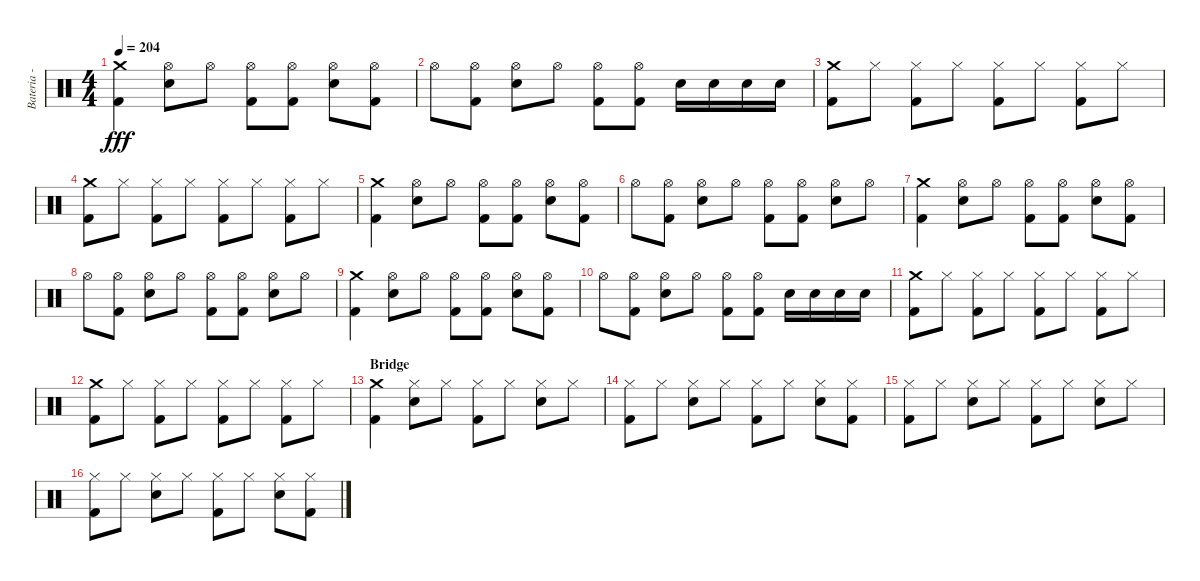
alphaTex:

\track ("Bateria - Larzon" "Bateria - ") {instrument percussion}
\staff {score}
\articulation defaults
\ts (4 4)
\tempo 204
\clef neutral
\ks c
("Crash medium (hit)" "Kick (hit) 2").4{dy fff} ("Hi-Hat (open)" "Electric Snare (hit)").8 "Hi-Hat (open)".8 ("Hi-Hat (open)" "Kick (hit) 2").8 ("Hi-Hat (open)" "Kick (hit) 2").8 ("Hi-Hat (open)" "Electric Snare (hit)").8 ("Hi-Hat (open)" "Kick (hit) 2").8 |
"Hi-Hat (open)".8 ("Hi-Hat (open)" "Kick (hit) 2").8 ("Hi-Hat (open)" "Electric Snare (hit)").8 "Hi-Hat (open)".8 ("Hi-Hat (open)" "Kick (hit) 2").8 ("Hi-Hat (open)" "Kick (hit) 2").8 "Electric Snare (hit)".16 "Electric Snare (hit)".16 "Electric Snare (hit)".16 "Electric Snare (hit)".16 |
("Kick (hit) 2" "Crash medium (hit)").8 "Hi-Hat (closed)".8 ("Kick (hit) 2" "Hi-Hat (closed)").8 "Hi-Hat (closed)".8 ("Kick (hit) 2" "Hi-Hat (closed)").8 "Hi-Hat (closed)".8 ("Kick (hit) 2" "Hi-Hat (closed)").8 "Hi-Hat (closed)".8 |
("Kick (hit) 2" "Crash medium (hit)").8 "Hi-Hat (closed)".8 ("Kick (hit) 2" "Hi-Hat (closed)").8 "Hi-Hat (closed)".8 ("Kick (hit) 2" "Hi-Hat (closed)").8 "Hi-Hat (closed)".8 ("Kick (hit) 2" "Hi-Hat (closed)").8 "Hi-Hat (closed)".8 |
("Kick (hit) 2" "Crash medium (hit)").4 ("Hi-Hat (open)" "Electric Snare (hit)").8 "Hi-Hat (open)".8 ("Hi-Hat (open)" "Kick (hit) 2").8 ("Hi-Hat (open)" "Kick (hit) 2").8 ("Hi-Hat (open)" "Electric Snare (hit)").8 ("Hi-Hat (open)" "Kick (hit) 2").8 |
"Hi-Hat (open)".8 ("Hi-Hat (open)" "Kick (hit) 2").8 ("Hi-Hat (open)" "Electric Snare (hit)").8 "Hi-Hat (open)".8 ("Hi-Hat (open)" "Kick (hit) 2").8 ("Hi-Hat (open)" "Kick (hit) 2").8 ("Hi-Hat (open)" "Electric Snare (hit)").8 "Hi-Hat (open)".8 |
("Crash medium (hit)" "Kick (hit) 2").4 ("Hi-Hat (open)" "Electric Snare (hit)").8 "Hi-Hat (open)".8 ("Hi-Hat (open)" "Kick (hit) 2").8 ("Hi-Hat (open)" "Kick (hit) 2").8 ("Hi-Hat (open)" "Electric Snare (hit)").8 ("Hi-Hat (open)" "Kick (hit) 2").8 |
"Hi-Hat (open)".8 ("Hi-Hat (open)" "Kick (hit) 2").8 ("Hi-Hat (open)" "Electric Snare (hit)").8 "Hi-Hat (open)".8 ("Hi-Hat (open)" "Kick (hit) 2").8 ("Hi-Hat (open)" "Kick (hit) 2").8 ("Electric Snare (hit)" "Hi-Hat (open)").8 "Hi-Hat (open)".8 |
("Crash medium (hit)" "Kick (hit) 2").4 ("Hi-Hat (open)" "Electric Snare (hit)").8 "Hi-Hat (open)".8 ("Hi-Hat (open)" "Kick (hit) 2").8 ("Hi-Hat (open)" "Kick (hit) 2").8 ("Hi-Hat (open)" "Electric Snare (hit)").8 ("Hi-Hat (open)" "Kick (hit) 2").8 |
"Hi-Hat (open)".8 ("Hi-Hat (open)" "Kick (hit) 2").8 ("Hi-Hat (open)" "Electric Snare (hit)").8 "Hi-Hat (open)".8 ("Hi-Hat (open)" "Kick (hit) 2").8 ("Hi-Hat (open)" "Kick (hit) 2").8 "Electric Snare (hit)".16 "Electric Snare (hit)".16 "Electric Snare (hit)".16 "Electric Snare (hit)".16 |
("Kick (hit) 2" "Crash medium (hit)").8 "Hi-Hat (closed)".8 ("Kick (hit) 2" "Hi-Hat (closed)").8 "Hi-Hat (closed)".8 ("Kick (hit) 2" "Hi-Hat (closed)").8 "Hi-Hat (closed)".8 ("Kick (hit) 2" "Hi-Hat (closed)").8 "Hi-Hat (closed)".8 |
("Kick (hit) 2" "Crash medium (hit)").8 "Hi-Hat (closed)".8 ("Kick (hit) 2" "Hi-Hat (closed)").8 "Hi-Hat (closed)".8 ("Kick (hit) 2" "Hi-Hat (closed)").8 "Hi-Hat (closed)".8 ("Kick (hit) 2" "Hi-Hat (closed)").8 "Hi-Hat (closed)".8 |
\section ("" "Bridge")
("Kick (hit) 2" "Crash medium (hit)").4 ("Electric Snare (hit)" "Hi-Hat (closed)").8 "Hi-Hat (closed)".8 ("Kick (hit) 2" "Hi-Hat (closed)").8 "Hi-Hat (closed)".8 ("Electric Snare (hit)" "Hi-Hat (closed)").8 "Hi-Hat (closed)".8 |
("Kick (hit) 2" "Hi-Hat (closed)").8 "Hi-Hat (closed)".8 ("Electric Snare (hit)" "Hi-Hat (closed)").8 "Hi-Hat (closed)".8 ("Kick (hit) 2" "Hi-Hat (closed)").8 "Hi-Hat (closed)".8 ("Electric Snare (hit)" "Hi-Hat (closed)").8 ("Kick (hit) 2" "Hi-Hat (closed)").8 |
("Kick (hit) 2" "Hi-Hat (closed)").8 "Hi-Hat (closed)".8 ("Electric Snare (hit)" "Hi-Hat (closed)").8 "Hi-Hat (closed)".8 ("Kick (hit) 2" "Hi-Hat (closed)").8 "Hi-Hat (closed)".8 ("Electric Snare (hit)" "Hi-Hat (closed)").8 "Hi-Hat (closed)".8 |
("Kick (hit) 2" "Hi-Hat (closed)").8 "Hi-Hat (closed)".8 ("Electric Snare (hit)" "Hi-Hat (closed)").8 "Hi-Hat (closed)".8 ("Kick (hit) 2" "Hi-Hat (closed)").8 "Hi-Hat (closed)".8 ("Electric Snare (hit)" "Hi-Hat (closed)").8 ("Kick (hit) 2" "Hi-Hat (closed)").8
